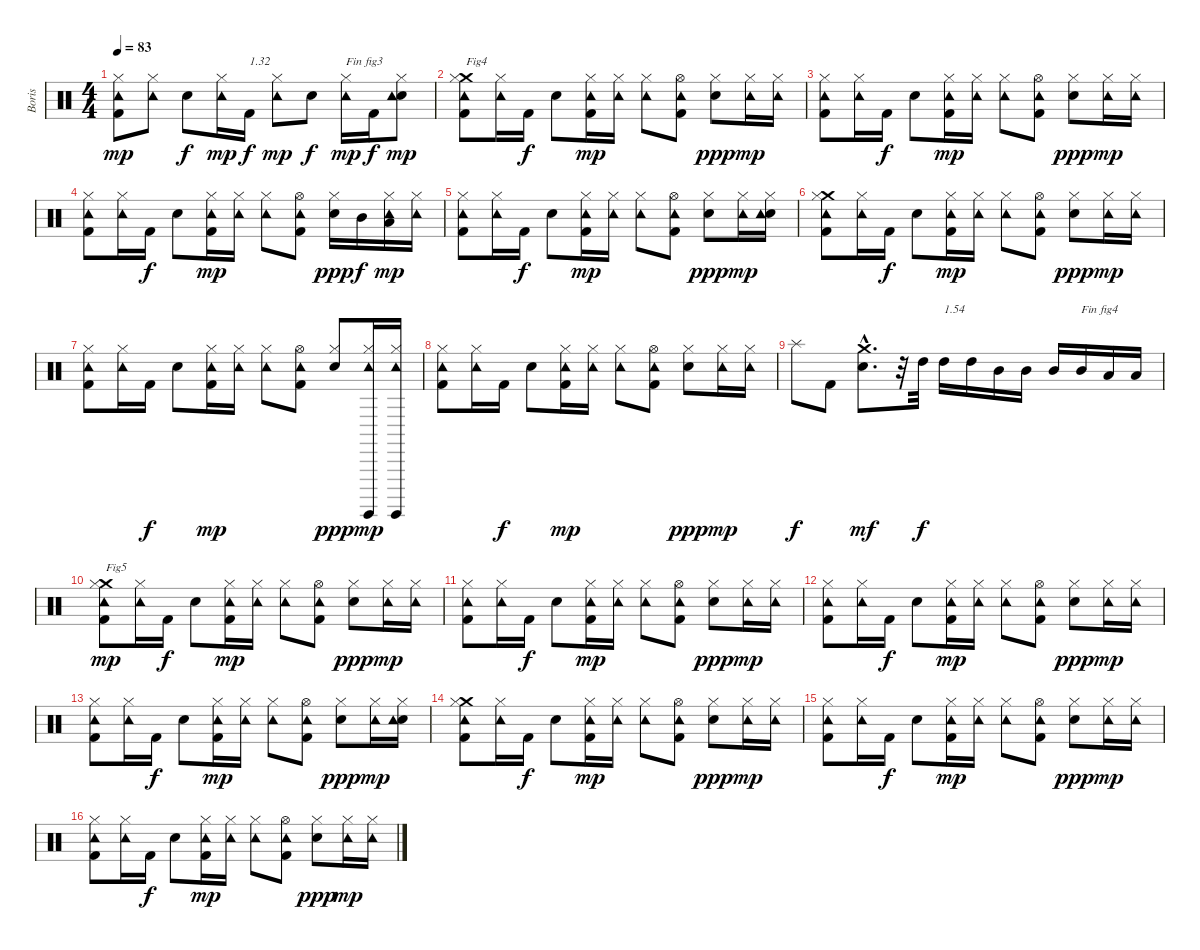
\track ("Boris" "Boris") {instrument percussion}
\staff {score}
\articulation defaults
\ts (4 4)
\tempo 83
\clef neutral
\ks c
("Kick (hit) 2" "Tambourine (hit)" "Hi-Hat (closed)").8{dy mp} ("Tambourine (hit)" "Hi-Hat (closed)").8 "Electric Snare (hit)".8{dy f} ("Tambourine (hit)" "Hi-Hat (closed)").16{dy mp} "Kick (hit) 2".16{txt "1.32" dy f} ("Tambourine (hit)" "Hi-Hat (closed)").8{dy mp} "Electric Snare (hit)".8{dy f} ("Tambourine (hit)" "Hi-Hat (closed)").16{txt "Fin fig3" dy mp} "Kick (hit) 2".16{dy f} ("Electric Snare (hit)" "Tambourine (hit)" "Hi-Hat (closed)").8{dy mp} |
("Kick (hit) 2" "Crash medium (hit)" "Tambourine (hit)" "Hi-Hat (closed)").8{txt "Fig4"} ("Tambourine (hit)" "Hi-Hat (closed)").16 "Kick (hit) 2".16{dy f} "Electric Snare (hit)".8 ("Kick (hit) 2" "Tambourine (hit)" "Hi-Hat (closed)").16{dy mp} ("Tambourine (hit)" "Hi-Hat (closed)").16 ("Tambourine (hit)" "Hi-Hat (closed)").8 ("Kick (hit) 2" "Tambourine (hit)" "Hi-Hat (open)").8 ("Electric Snare (hit)" "Hi-Hat (closed)").8{dy ppp} ("Tambourine (hit)" "Hi-Hat (closed)").16{dy mp} ("Tambourine (hit)" "Hi-Hat (closed)").16 |
("Kick (hit) 2" "Tambourine (hit)" "Hi-Hat (closed)").8 ("Tambourine (hit)" "Hi-Hat (closed)").16 "Kick (hit) 2".16{dy f} "Electric Snare (hit)".8 ("Kick (hit) 2" "Tambourine (hit)" "Hi-Hat (closed)").16{dy mp} ("Tambourine (hit)" "Hi-Hat (closed)").16 ("Tambourine (hit)" "Hi-Hat (closed)").8 ("Kick (hit) 2" "Tambourine (hit)" "Hi-Hat (open)").8 ("Electric Snare (hit)" "Hi-Hat (closed)").8{dy ppp} ("Tambourine (hit)" "Hi-Hat (closed)").16{dy mp} ("Tambourine (hit)" "Hi-Hat (closed)").16 |
("Kick (hit) 2" "Tambourine (hit)" "Hi-Hat (closed)").8 ("Tambourine (hit)" "Hi-Hat (closed)").16 "Kick (hit) 2".16{dy f} "Electric Snare (hit)".8 ("Kick (hit) 2" "Tambourine (hit)" "Hi-Hat (closed)").16{dy mp} ("Tambourine (hit)" "Hi-Hat (closed)").16 ("Tambourine (hit)" "Hi-Hat (closed)").8 ("Kick (hit) 2" "Tambourine (hit)" "Hi-Hat (open)").8 ("Electric Snare (hit)" "Hi-Hat (closed)").16{dy ppp} "Mid Tom (hit)".16{dy f} ("Low Tom (hit)" "Tambourine (hit)" "Hi-Hat (closed)").16{dy mp} ("Tambourine (hit)" "Hi-Hat (closed)").16 |
("Kick (hit) 2" "Tambourine (hit)" "Hi-Hat (closed)").8 ("Tambourine (hit)" "Hi-Hat (closed)").16 "Kick (hit) 2".16{dy f} "Electric Snare (hit)".8 ("Kick (hit) 2" "Tambourine (hit)" "Hi-Hat (closed)").16{dy mp} ("Tambourine (hit)" "Hi-Hat (closed)").16 ("Tambourine (hit)" "Hi-Hat (closed)").8 ("Kick (hit) 2" "Tambourine (hit)" "Hi-Hat (open)").8 ("Electric Snare (hit)" "Hi-Hat (closed)").8{dy ppp} ("Tambourine (hit)" "Hi-Hat (closed)").16{dy mp} ("Electric Snare (hit)" "Tambourine (hit)" "Hi-Hat (closed)").16 |
("Kick (hit) 2" "Crash medium (hit)" "Tambourine (hit)" "Hi-Hat (closed)").8 ("Tambourine (hit)" "Hi-Hat (closed)").16 "Kick (hit) 2".16{dy f} "Electric Snare (hit)".8 ("Kick (hit) 2" "Tambourine (hit)" "Hi-Hat (closed)").16{dy mp} ("Tambourine (hit)" "Hi-Hat (closed)").16 ("Tambourine (hit)" "Hi-Hat (closed)").8 ("Kick (hit) 2" "Tambourine (hit)" "Hi-Hat (open)").8 ("Electric Snare (hit)" "Hi-Hat (closed)").8{dy ppp} ("Tambourine (hit)" "Hi-Hat (closed)").16{dy mp} ("Tambourine (hit)" "Hi-Hat (closed)").16 |
("Kick (hit) 2" "Tambourine (hit)" "Hi-Hat (closed)").8 ("Tambourine (hit)" "Hi-Hat (closed)").16 "Kick (hit) 2".16{dy f} "Electric Snare (hit)".8 ("Kick (hit) 2" "Tambourine (hit)" "Hi-Hat (closed)").16{dy mp} ("Tambourine (hit)" "Hi-Hat (closed)").16 ("Tambourine (hit)" "Hi-Hat (closed)").8 ("Kick (hit) 2" "Tambourine (hit)" "Hi-Hat (open)").8 ("Electric Snare (hit)" "Hi-Hat (closed)").8{dy ppp} ("Surdo (hit)" "Tambourine (hit)" "Hi-Hat (closed)").16{dy mp} ("Surdo (hit)" "Tambourine (hit)" "Hi-Hat (closed)").16 |
("Kick (hit) 2" "Tambourine (hit)" "Hi-Hat (closed)").8 ("Tambourine (hit)" "Hi-Hat (closed)").16 "Kick (hit) 2".16{dy f} "Electric Snare (hit)".8 ("Kick (hit) 2" "Tambourine (hit)" "Hi-Hat (closed)").16{dy mp} ("Tambourine (hit)" "Hi-Hat (closed)").16 ("Tambourine (hit)" "Hi-Hat (closed)").8 ("Kick (hit) 2" "Tambourine (hit)" "Hi-Hat (open)").8 ("Electric Snare (hit)" "Hi-Hat (closed)").8{dy ppp} ("Tambourine (hit)" "Hi-Hat (closed)").16{dy mp} ("Tambourine (hit)" "Hi-Hat (closed)").16 |
"Splash (hit)".8{dy f} "Kick (hit) 2".8 ("Electric Snare (hit)"{hac} "Crash medium (hit)"{hac}).8{d dy mf} r.32 "High Tom (hit)".32{dy f} "High Tom (hit)".16{txt "1.54"} "High Tom (hit)".16 "Mid Tom (hit)".16 "Mid Tom (hit)".16 "Mid Tom (hit)".16 "Mid Tom (hit)".16{txt "Fin fig4"} "Low Tom (hit)".16 "Low Tom (hit)".16 |
("Kick (hit) 2" "Crash medium (hit)" "Tambourine (hit)" "Hi-Hat (closed)").8{txt "Fig5" dy mp} ("Tambourine (hit)" "Hi-Hat (closed)").16 "Kick (hit) 2".16{dy f} "Electric Snare (hit)".8 ("Kick (hit) 2" "Tambourine (hit)" "Hi-Hat (closed)").16{dy mp} ("Tambourine (hit)" "Hi-Hat (closed)").16 ("Tambourine (hit)" "Hi-Hat (closed)").8 ("Kick (hit) 2" "Tambourine (hit)" "Hi-Hat (open)").8 ("Electric Snare (hit)" "Hi-Hat (closed)").8{dy ppp} ("Tambourine (hit)" "Hi-Hat (closed)").16{dy mp} ("Tambourine (hit)" "Hi-Hat (closed)").16 |
("Kick (hit) 2" "Tambourine (hit)" "Hi-Hat (closed)").8 ("Tambourine (hit)" "Hi-Hat (closed)").16 "Kick (hit) 2".16{dy f} "Electric Snare (hit)".8 ("Kick (hit) 2" "Tambourine (hit)" "Hi-Hat (closed)").16{dy mp} ("Tambourine (hit)" "Hi-Hat (closed)").16 ("Tambourine (hit)" "Hi-Hat (closed)").8 ("Kick (hit) 2" "Tambourine (hit)" "Hi-Hat (open)").8 ("Electric Snare (hit)" "Hi-Hat (closed)").8{dy ppp} ("Tambourine (hit)" "Hi-Hat (closed)").16{dy mp} ("Tambourine (hit)" "Hi-Hat (closed)").16 |
("Kick (hit) 2" "Tambourine (hit)" "Hi-Hat (closed)").8 ("Tambourine (hit)" "Hi-Hat (closed)").16 "Kick (hit) 2".16{dy f} "Electric Snare (hit)".8 ("Kick (hit) 2" "Tambourine (hit)" "Hi-Hat (closed)").16{dy mp} ("Tambourine (hit)" "Hi-Hat (closed)").16 ("Tambourine (hit)" "Hi-Hat (closed)").8 ("Kick (hit) 2" "Tambourine (hit)" "Hi-Hat (open)").8 ("Electric Snare (hit)" "Hi-Hat (closed)").8{dy ppp} ("Tambourine (hit)" "Hi-Hat (closed)").16{dy mp} ("Tambourine (hit)" "Hi-Hat (closed)").16 |
("Kick (hit) 2" "Tambourine (hit)" "Hi-Hat (closed)").8 ("Tambourine (hit)" "Hi-Hat (closed)").16 "Kick (hit) 2".16{dy f} "Electric Snare (hit)".8 ("Kick (hit) 2" "Tambourine (hit)" "Hi-Hat (closed)").16{dy mp} ("Tambourine (hit)" "Hi-Hat (closed)").16 ("Tambourine (hit)" "Hi-Hat (closed)").8 ("Kick (hit) 2" "Tambourine (hit)" "Hi-Hat (open)").8 ("Electric Snare (hit)" "Hi-Hat (closed)").8{dy ppp} ("Tambourine (hit)" "Hi-Hat (closed)").16{dy mp} ("Electric Snare (hit)" "Tambourine (hit)" "Hi-Hat (closed)").16 |
("Kick (hit) 2" "Crash medium (hit)" "Tambourine (hit)" "Hi-Hat (closed)").8 ("Tambourine (hit)" "Hi-Hat (closed)").16 "Kick (hit) 2".16{dy f} "Electric Snare (hit)".8 ("Kick (hit) 2" "Tambourine (hit)" "Hi-Hat (closed)").16{dy mp} ("Tambourine (hit)" "Hi-Hat (closed)").16 ("Tambourine (hit)" "Hi-Hat (closed)").8 ("Kick (hit) 2" "Tambourine (hit)" "Hi-Hat (open)").8 ("Electric Snare (hit)" "Hi-Hat (closed)").8{dy ppp} ("Tambourine (hit)" "Hi-Hat (closed)").16{dy mp} ("Tambourine (hit)" "Hi-Hat (closed)").16 |
("Kick (hit) 2" "Tambourine (hit)" "Hi-Hat (closed)").8 ("Tambourine (hit)" "Hi-Hat (closed)").16 "Kick (hit) 2".16{dy f} "Electric Snare (hit)".8 ("Kick (hit) 2" "Tambourine (hit)" "Hi-Hat (closed)").16{dy mp} ("Tambourine (hit)" "Hi-Hat (closed)").16 ("Tambourine (hit)" "Hi-Hat (closed)").8 ("Kick (hit) 2" "Tambourine (hit)" "Hi-Hat (open)").8 ("Electric Snare (hit)" "Hi-Hat (closed)").8{dy ppp} ("Tambourine (hit)" "Hi-Hat (closed)").16{dy mp} ("Tambourine (hit)" "Hi-Hat (closed)").16 |
("Kick (hit) 2" "Tambourine (hit)" "Hi-Hat (closed)").8 ("Tambourine (hit)" "Hi-Hat (closed)").16 "Kick (hit) 2".16{dy f} "Electric Snare (hit)".8 ("Kick (hit) 2" "Tambourine (hit)" "Hi-Hat (closed)").16{dy mp} ("Tambourine (hit)" "Hi-Hat (closed)").16 ("Tambourine (hit)" "Hi-Hat (closed)").8 ("Kick (hit) 2" "Tambourine (hit)" "Hi-Hat (open)").8 ("Electric Snare (hit)" "Hi-Hat (closed)").8{dy ppp} ("Tambourine (hit)" "Hi-Hat (closed)").16{dy mp} ("Tambourine (hit)" "Hi-Hat (closed)").16
